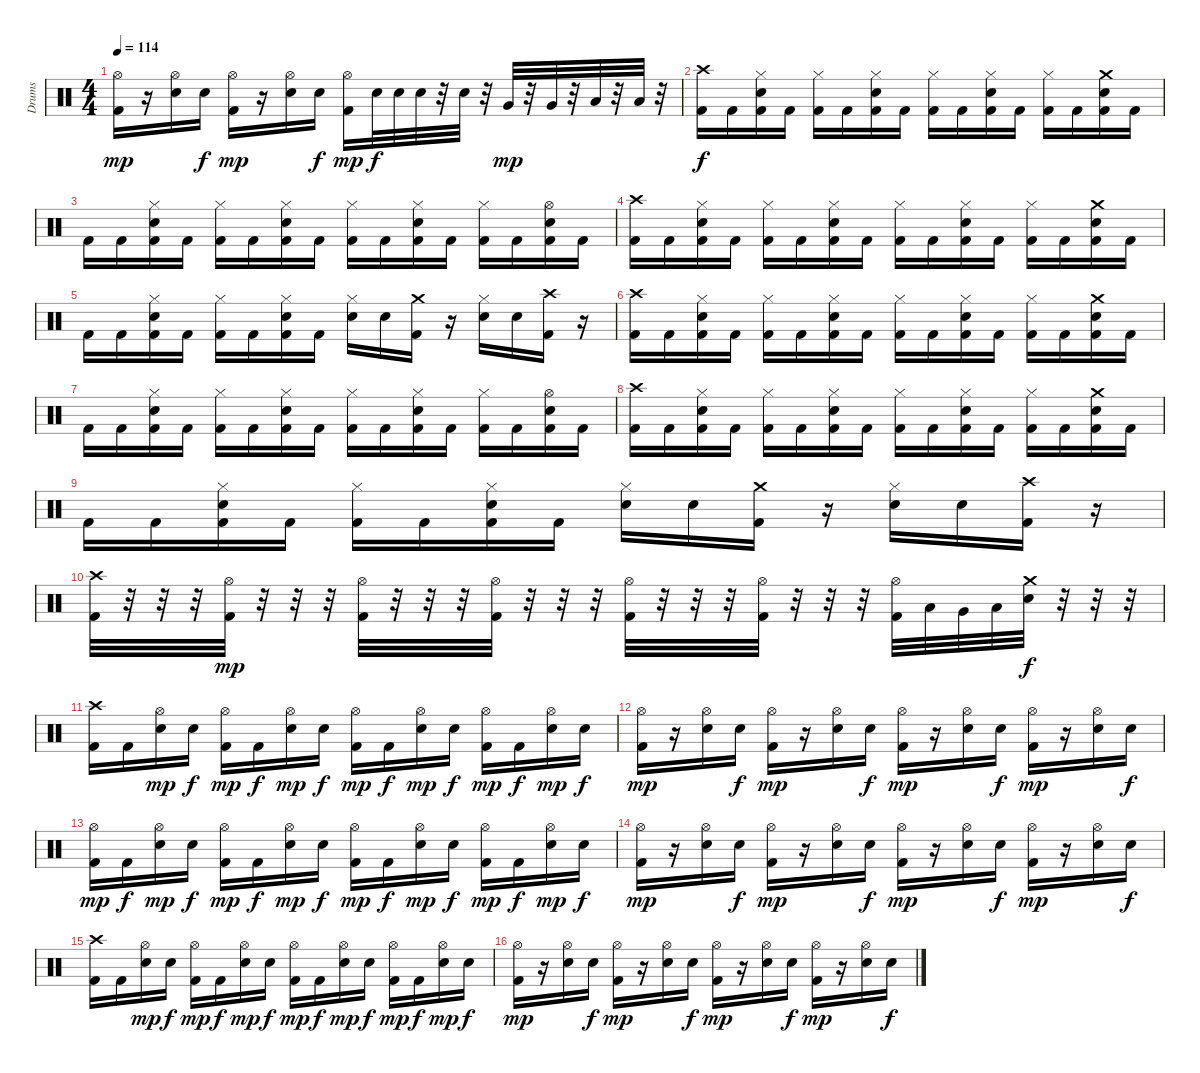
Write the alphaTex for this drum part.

\track ("Drums" "Drums") {instrument percussion}
\staff {score}
\articulation defaults
\ts (4 4)
\tempo 114
\clef neutral
\ks c
("Hi-Hat (open)" "Kick (hit) 2").16{dy mp} r.16 ("Hi-Hat (open)" "Electric Snare (hit)").16 "Electric Snare (hit)".16{dy f} ("Hi-Hat (open)" "Kick (hit) 2").16{dy mp} r.16 ("Hi-Hat (open)" "Electric Snare (hit)").16 "Electric Snare (hit)".16{dy f} ("Hi-Hat (open)" "Kick (hit) 2").16{dy mp} "Electric Snare (hit)".32{dy f} "Electric Snare (hit)".32 "Electric Snare (hit)".32 r.32 "Electric Snare (hit)".32 r.32 "Very Low Tom (hit)".32{dy mp} r.32 "Very Low Tom (hit)".32 r.32 "Low Floor Tom (hit)".32 r.32 "Low Floor Tom (hit)".32 r.32 |
("Crash high (hit)" "Kick (hit) 2").16{dy f} "Kick (hit) 2".16 ("Hi-Hat (closed)" "Electric Snare (hit)" "Kick (hit) 2").16 "Kick (hit) 2".16 ("Hi-Hat (closed)" "Kick (hit) 2").16 "Kick (hit) 2".16 ("Hi-Hat (closed)" "Electric Snare (hit)" "Kick (hit) 2").16 "Kick (hit) 2".16 ("Hi-Hat (closed)" "Kick (hit) 2").16 "Kick (hit) 2".16 ("Hi-Hat (closed)" "Electric Snare (hit)" "Kick (hit) 2").16 "Kick (hit) 2".16 ("Hi-Hat (closed)" "Kick (hit) 2").16 "Kick (hit) 2".16 ("Crash medium (hit)" "Electric Snare (hit)" "Kick (hit) 2").16 "Kick (hit) 2".16 |
"Kick (hit) 2".16 "Kick (hit) 2".16 ("Hi-Hat (closed)" "Electric Snare (hit)" "Kick (hit) 2").16 "Kick (hit) 2".16 ("Hi-Hat (closed)" "Kick (hit) 2").16 "Kick (hit) 2".16 ("Hi-Hat (closed)" "Electric Snare (hit)" "Kick (hit) 2").16 "Kick (hit) 2".16 ("Hi-Hat (closed)" "Kick (hit) 2").16 "Kick (hit) 2".16 ("Hi-Hat (closed)" "Electric Snare (hit)" "Kick (hit) 2").16 "Kick (hit) 2".16 ("Hi-Hat (closed)" "Kick (hit) 2").16 "Kick (hit) 2".16 ("Hi-Hat (open)" "Electric Snare (hit)" "Kick (hit) 2").16 "Kick (hit) 2".16 |
("Crash high (hit)" "Kick (hit) 2").16 "Kick (hit) 2".16 ("Hi-Hat (closed)" "Electric Snare (hit)" "Kick (hit) 2").16 "Kick (hit) 2".16 ("Hi-Hat (closed)" "Kick (hit) 2").16 "Kick (hit) 2".16 ("Hi-Hat (closed)" "Electric Snare (hit)" "Kick (hit) 2").16 "Kick (hit) 2".16 ("Hi-Hat (closed)" "Kick (hit) 2").16 "Kick (hit) 2".16 ("Hi-Hat (closed)" "Electric Snare (hit)" "Kick (hit) 2").16 "Kick (hit) 2".16 ("Hi-Hat (closed)" "Kick (hit) 2").16 "Kick (hit) 2".16 ("Crash medium (hit)" "Electric Snare (hit)" "Kick (hit) 2").16 "Kick (hit) 2".16 |
"Kick (hit) 2".16 "Kick (hit) 2".16 ("Hi-Hat (closed)" "Electric Snare (hit)" "Kick (hit) 2").16 "Kick (hit) 2".16 ("Hi-Hat (closed)" "Kick (hit) 2").16 "Kick (hit) 2".16 ("Hi-Hat (closed)" "Electric Snare (hit)" "Kick (hit) 2").16 "Kick (hit) 2".16 ("Hi-Hat (closed)" "Electric Snare (hit)").16 "Electric Snare (hit)".16 ("Crash medium (hit)" "Kick (hit) 2").16 r.16 ("Hi-Hat (closed)" "Electric Snare (hit)").16 "Electric Snare (hit)".16 ("Crash high (hit)" "Kick (hit) 2").16 r.16 |
("Crash high (hit)" "Kick (hit) 2").16 "Kick (hit) 2".16 ("Hi-Hat (closed)" "Electric Snare (hit)" "Kick (hit) 2").16 "Kick (hit) 2".16 ("Hi-Hat (closed)" "Kick (hit) 2").16 "Kick (hit) 2".16 ("Hi-Hat (closed)" "Electric Snare (hit)" "Kick (hit) 2").16 "Kick (hit) 2".16 ("Hi-Hat (closed)" "Kick (hit) 2").16 "Kick (hit) 2".16 ("Hi-Hat (closed)" "Electric Snare (hit)" "Kick (hit) 2").16 "Kick (hit) 2".16 ("Hi-Hat (closed)" "Kick (hit) 2").16 "Kick (hit) 2".16 ("Crash medium (hit)" "Electric Snare (hit)" "Kick (hit) 2").16 "Kick (hit) 2".16 |
"Kick (hit) 2".16 "Kick (hit) 2".16 ("Hi-Hat (closed)" "Electric Snare (hit)" "Kick (hit) 2").16 "Kick (hit) 2".16 ("Hi-Hat (closed)" "Kick (hit) 2").16 "Kick (hit) 2".16 ("Hi-Hat (closed)" "Electric Snare (hit)" "Kick (hit) 2").16 "Kick (hit) 2".16 ("Hi-Hat (closed)" "Kick (hit) 2").16 "Kick (hit) 2".16 ("Hi-Hat (closed)" "Electric Snare (hit)" "Kick (hit) 2").16 "Kick (hit) 2".16 ("Hi-Hat (closed)" "Kick (hit) 2").16 "Kick (hit) 2".16 ("Hi-Hat (open)" "Electric Snare (hit)" "Kick (hit) 2").16 "Kick (hit) 2".16 |
("Crash high (hit)" "Kick (hit) 2").16 "Kick (hit) 2".16 ("Hi-Hat (closed)" "Electric Snare (hit)" "Kick (hit) 2").16 "Kick (hit) 2".16 ("Hi-Hat (closed)" "Kick (hit) 2").16 "Kick (hit) 2".16 ("Hi-Hat (closed)" "Electric Snare (hit)" "Kick (hit) 2").16 "Kick (hit) 2".16 ("Hi-Hat (closed)" "Kick (hit) 2").16 "Kick (hit) 2".16 ("Hi-Hat (closed)" "Electric Snare (hit)" "Kick (hit) 2").16 "Kick (hit) 2".16 ("Hi-Hat (closed)" "Kick (hit) 2").16 "Kick (hit) 2".16 ("Crash medium (hit)" "Electric Snare (hit)" "Kick (hit) 2").16 "Kick (hit) 2".16 |
"Kick (hit) 2".16 "Kick (hit) 2".16 ("Hi-Hat (closed)" "Electric Snare (hit)" "Kick (hit) 2").16 "Kick (hit) 2".16 ("Hi-Hat (closed)" "Kick (hit) 2").16 "Kick (hit) 2".16 ("Hi-Hat (closed)" "Electric Snare (hit)" "Kick (hit) 2").16 "Kick (hit) 2".16 ("Hi-Hat (closed)" "Electric Snare (hit)").16 "Electric Snare (hit)".16 ("Crash medium (hit)" "Kick (hit) 2").16 r.16 ("Hi-Hat (closed)" "Electric Snare (hit)").16 "Electric Snare (hit)".16 ("Crash high (hit)" "Kick (hit) 2").16 r.16 |
("Crash high (hit)" "Kick (hit) 2").32 r.32 r.32 r.32 ("Hi-Hat (open)" "Kick (hit) 2").32{dy mp} r.32 r.32 r.32 ("Hi-Hat (open)" "Kick (hit) 2").32 r.32 r.32 r.32 ("Hi-Hat (open)" "Kick (hit) 2").32 r.32 r.32 r.32 ("Hi-Hat (open)" "Kick (hit) 2").32 r.32 r.32 r.32 ("Hi-Hat (open)" "Kick (hit) 2").32 r.32 r.32 r.32 ("Hi-Hat (open)" "Kick (hit) 2").32 "Low Tom (hit)".32 "Very Low Tom (hit)".32 "Low Floor Tom (hit)".32 ("Crash medium (hit)" "Electric Snare (hit)").32{dy f} r.32 r.32 r.32 |
("Crash high (hit)" "Kick (hit) 2").16 "Kick (hit) 2".16 ("Hi-Hat (open)" "Electric Snare (hit)").16{dy mp} "Electric Snare (hit)".16{dy f} ("Hi-Hat (open)" "Kick (hit) 2").16{dy mp} "Kick (hit) 2".16{dy f} ("Hi-Hat (open)" "Electric Snare (hit)").16{dy mp} "Electric Snare (hit)".16{dy f} ("Hi-Hat (open)" "Kick (hit) 2").16{dy mp} "Kick (hit) 2".16{dy f} ("Hi-Hat (open)" "Electric Snare (hit)").16{dy mp} "Electric Snare (hit)".16{dy f} ("Hi-Hat (open)" "Kick (hit) 2").16{dy mp} "Kick (hit) 2".16{dy f} ("Hi-Hat (open)" "Electric Snare (hit)").16{dy mp} "Electric Snare (hit)".16{dy f} |
("Hi-Hat (open)" "Kick (hit) 2").16{dy mp} r.16 ("Hi-Hat (open)" "Electric Snare (hit)").16 "Electric Snare (hit)".16{dy f} ("Hi-Hat (open)" "Kick (hit) 2").16{dy mp} r.16 ("Hi-Hat (open)" "Electric Snare (hit)").16 "Electric Snare (hit)".16{dy f} ("Hi-Hat (open)" "Kick (hit) 2").16{dy mp} r.16 ("Hi-Hat (open)" "Electric Snare (hit)").16 "Electric Snare (hit)".16{dy f} ("Hi-Hat (open)" "Kick (hit) 2").16{dy mp} r.16 ("Hi-Hat (open)" "Electric Snare (hit)").16 "Electric Snare (hit)".16{dy f} |
("Hi-Hat (open)" "Kick (hit) 2").16{dy mp} "Kick (hit) 2".16{dy f} ("Hi-Hat (open)" "Electric Snare (hit)").16{dy mp} "Electric Snare (hit)".16{dy f} ("Hi-Hat (open)" "Kick (hit) 2").16{dy mp} "Kick (hit) 2".16{dy f} ("Hi-Hat (open)" "Electric Snare (hit)").16{dy mp} "Electric Snare (hit)".16{dy f} ("Hi-Hat (open)" "Kick (hit) 2").16{dy mp} "Kick (hit) 2".16{dy f} ("Hi-Hat (open)" "Electric Snare (hit)").16{dy mp} "Electric Snare (hit)".16{dy f} ("Hi-Hat (open)" "Kick (hit) 2").16{dy mp} "Kick (hit) 2".16{dy f} ("Hi-Hat (open)" "Electric Snare (hit)").16{dy mp} "Electric Snare (hit)".16{dy f} |
("Hi-Hat (open)" "Kick (hit) 2").16{dy mp} r.16 ("Hi-Hat (open)" "Electric Snare (hit)").16 "Electric Snare (hit)".16{dy f} ("Hi-Hat (open)" "Kick (hit) 2").16{dy mp} r.16 ("Hi-Hat (open)" "Electric Snare (hit)").16 "Electric Snare (hit)".16{dy f} ("Hi-Hat (open)" "Kick (hit) 2").16{dy mp} r.16 ("Hi-Hat (open)" "Electric Snare (hit)").16 "Electric Snare (hit)".16{dy f} ("Hi-Hat (open)" "Kick (hit) 2").16{dy mp} r.16 ("Hi-Hat (open)" "Electric Snare (hit)").16 "Electric Snare (hit)".16{dy f} |
("Crash high (hit)" "Kick (hit) 2").16 "Kick (hit) 2".16 ("Hi-Hat (open)" "Electric Snare (hit)").16{dy mp} "Electric Snare (hit)".16{dy f} ("Hi-Hat (open)" "Kick (hit) 2").16{dy mp} "Kick (hit) 2".16{dy f} ("Hi-Hat (open)" "Electric Snare (hit)").16{dy mp} "Electric Snare (hit)".16{dy f} ("Hi-Hat (open)" "Kick (hit) 2").16{dy mp} "Kick (hit) 2".16{dy f} ("Hi-Hat (open)" "Electric Snare (hit)").16{dy mp} "Electric Snare (hit)".16{dy f} ("Hi-Hat (open)" "Kick (hit) 2").16{dy mp} "Kick (hit) 2".16{dy f} ("Hi-Hat (open)" "Electric Snare (hit)").16{dy mp} "Electric Snare (hit)".16{dy f} |
("Hi-Hat (open)" "Kick (hit) 2").16{dy mp} r.16 ("Hi-Hat (open)" "Electric Snare (hit)").16 "Electric Snare (hit)".16{dy f} ("Hi-Hat (open)" "Kick (hit) 2").16{dy mp} r.16 ("Hi-Hat (open)" "Electric Snare (hit)").16 "Electric Snare (hit)".16{dy f} ("Hi-Hat (open)" "Kick (hit) 2").16{dy mp} r.16 ("Hi-Hat (open)" "Electric Snare (hit)").16 "Electric Snare (hit)".16{dy f} ("Hi-Hat (open)" "Kick (hit) 2").16{dy mp} r.16 ("Hi-Hat (open)" "Electric Snare (hit)").16 "Electric Snare (hit)".16{dy f}
